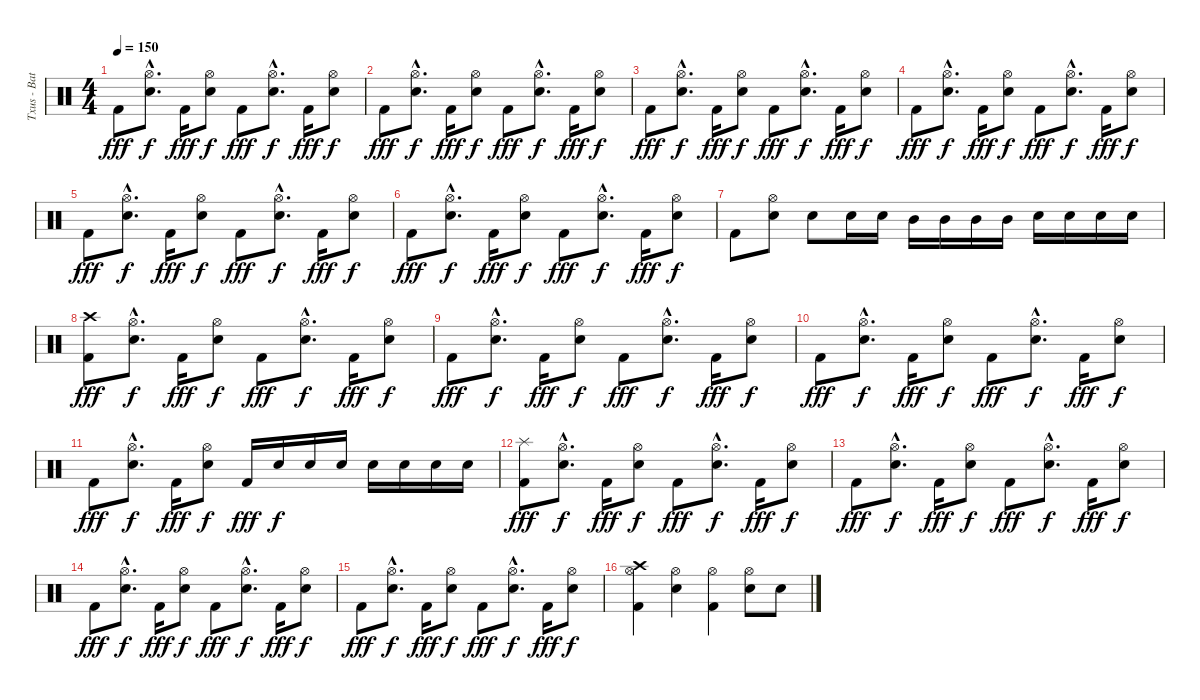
\track ("Txus - Batería" "Txus - Bat") {instrument percussion}
\staff {score}
\articulation defaults
\ts (4 4)
\tempo 150
\clef neutral
\ks c "Kick (hit) 2".8{dy fff}
("Hi-Hat (open)"{hac} "Electric Snare (hit)"{hac}).8{d dy f} "Kick (hit) 2".16{dy fff} ("Hi-Hat (open)" "Electric Snare (hit)").8{dy f} "Kick (hit) 2".8{dy fff} ("Hi-Hat (open)"{hac} "Electric Snare (hit)"{hac}).8{d dy f} "Kick (hit) 2".16{dy fff} ("Hi-Hat (open)" "Electric Snare (hit)").8{dy f} |
"Kick (hit) 2".8{dy fff} ("Hi-Hat (open)"{hac} "Electric Snare (hit)"{hac}).8{d dy f} "Kick (hit) 2".16{dy fff} ("Hi-Hat (open)" "Electric Snare (hit)").8{dy f} "Kick (hit) 2".8{dy fff} ("Hi-Hat (open)"{hac} "Electric Snare (hit)"{hac}).8{d dy f} "Kick (hit) 2".16{dy fff} ("Hi-Hat (open)" "Electric Snare (hit)").8{dy f} |
"Kick (hit) 2".8{dy fff} ("Hi-Hat (open)"{hac} "Electric Snare (hit)"{hac}).8{d dy f} "Kick (hit) 2".16{dy fff} ("Hi-Hat (open)" "Electric Snare (hit)").8{dy f} "Kick (hit) 2".8{dy fff} ("Hi-Hat (open)"{hac} "Electric Snare (hit)"{hac}).8{d dy f} "Kick (hit) 2".16{dy fff} ("Hi-Hat (open)" "Electric Snare (hit)").8{dy f} |
"Kick (hit) 2".8{dy fff} ("Hi-Hat (open)"{hac} "Electric Snare (hit)"{hac}).8{d dy f} "Kick (hit) 2".16{dy fff} ("Hi-Hat (open)" "Electric Snare (hit)").8{dy f} "Kick (hit) 2".8{dy fff} ("Hi-Hat (open)"{hac} "Electric Snare (hit)"{hac}).8{d dy f} "Kick (hit) 2".16{dy fff} ("Hi-Hat (open)" "Electric Snare (hit)").8{dy f} |
"Kick (hit) 2".8{dy fff} ("Hi-Hat (open)"{hac} "Electric Snare (hit)"{hac}).8{d dy f} "Kick (hit) 2".16{dy fff} ("Hi-Hat (open)" "Electric Snare (hit)").8{dy f} "Kick (hit) 2".8{dy fff} ("Hi-Hat (open)"{hac} "Electric Snare (hit)"{hac}).8{d dy f} "Kick (hit) 2".16{dy fff} ("Hi-Hat (open)" "Electric Snare (hit)").8{dy f} |
"Kick (hit) 2".8{dy fff} ("Hi-Hat (open)"{hac} "Electric Snare (hit)"{hac}).8{d dy f} "Kick (hit) 2".16{dy fff} ("Hi-Hat (open)" "Electric Snare (hit)").8{dy f} "Kick (hit) 2".8{dy fff} ("Hi-Hat (open)"{hac} "Electric Snare (hit)"{hac}).8{d dy f} "Kick (hit) 2".16{dy fff} ("Hi-Hat (open)" "Electric Snare (hit)").8{dy f} |
"Kick (hit) 2".8 ("Hi-Hat (open)" "Electric Snare (hit)").8 "Electric Snare (hit)".8 "Electric Snare (hit)".16 "Electric Snare (hit)".16 "Mid Tom (hit)".16 "Mid Tom (hit)".16 "Mid Tom (hit)".16 "Mid Tom (hit)".16 "Electric Snare (hit)".16 "Electric Snare (hit)".16 "Electric Snare (hit)".16 "Electric Snare (hit)".16 |
("Crash high (hit)" "Kick (hit) 2").8{dy fff} ("Hi-Hat (open)"{hac} "Electric Snare (hit)"{hac}).8{d dy f} "Kick (hit) 2".16{dy fff} ("Hi-Hat (open)" "Electric Snare (hit)").8{dy f} "Kick (hit) 2".8{dy fff} ("Hi-Hat (open)"{hac} "Electric Snare (hit)"{hac}).8{d dy f} "Kick (hit) 2".16{dy fff} ("Hi-Hat (open)" "Electric Snare (hit)").8{dy f} |
"Kick (hit) 2".8{dy fff} ("Hi-Hat (open)"{hac} "Electric Snare (hit)"{hac}).8{d dy f} "Kick (hit) 2".16{dy fff} ("Hi-Hat (open)" "Electric Snare (hit)").8{dy f} "Kick (hit) 2".8{dy fff} ("Hi-Hat (open)"{hac} "Electric Snare (hit)"{hac}).8{d dy f} "Kick (hit) 2".16{dy fff} ("Hi-Hat (open)" "Electric Snare (hit)").8{dy f} |
"Kick (hit) 2".8{dy fff} ("Hi-Hat (open)"{hac} "Electric Snare (hit)"{hac}).8{d dy f} "Kick (hit) 2".16{dy fff} ("Hi-Hat (open)" "Electric Snare (hit)").8{dy f} "Kick (hit) 2".8{dy fff} ("Hi-Hat (open)"{hac} "Electric Snare (hit)"{hac}).8{d dy f} "Kick (hit) 2".16{dy fff} ("Hi-Hat (open)" "Electric Snare (hit)").8{dy f} |
"Kick (hit) 2".8{dy fff} ("Hi-Hat (open)"{hac} "Electric Snare (hit)"{hac}).8{d dy f} "Kick (hit) 2".16{dy fff} ("Hi-Hat (open)" "Electric Snare (hit)").8{dy f} "Kick (hit) 2".16{dy fff} "Electric Snare (hit)".16{dy f} "Electric Snare (hit)".16 "Electric Snare (hit)".16 "Electric Snare (hit)".16 "Electric Snare (hit)".16 "Electric Snare (hit)".16 "Electric Snare (hit)".16 |
("Splash (hit)" "Kick (hit) 2").8{dy fff} ("Hi-Hat (open)"{hac} "Electric Snare (hit)"{hac}).8{d dy f} "Kick (hit) 2".16{dy fff} ("Hi-Hat (open)" "Electric Snare (hit)").8{dy f} "Kick (hit) 2".8{dy fff} ("Hi-Hat (open)"{hac} "Electric Snare (hit)"{hac}).8{d dy f} "Kick (hit) 2".16{dy fff} ("Hi-Hat (open)" "Electric Snare (hit)").8{dy f} |
"Kick (hit) 2".8{dy fff} ("Hi-Hat (open)"{hac} "Electric Snare (hit)"{hac}).8{d dy f} "Kick (hit) 2".16{dy fff} ("Hi-Hat (open)" "Electric Snare (hit)").8{dy f} "Kick (hit) 2".8{dy fff} ("Hi-Hat (open)"{hac} "Electric Snare (hit)"{hac}).8{d dy f} "Kick (hit) 2".16{dy fff} ("Hi-Hat (open)" "Electric Snare (hit)").8{dy f} |
"Kick (hit) 2".8{dy fff} ("Hi-Hat (open)"{hac} "Electric Snare (hit)"{hac}).8{d dy f} "Kick (hit) 2".16{dy fff} ("Hi-Hat (open)" "Electric Snare (hit)").8{dy f} "Kick (hit) 2".8{dy fff} ("Hi-Hat (open)"{hac} "Electric Snare (hit)"{hac}).8{d dy f} "Kick (hit) 2".16{dy fff} ("Hi-Hat (open)" "Electric Snare (hit)").8{dy f} |
"Kick (hit) 2".8{dy fff} ("Hi-Hat (open)"{hac} "Electric Snare (hit)"{hac}).8{d dy f} "Kick (hit) 2".16{dy fff} ("Hi-Hat (open)" "Electric Snare (hit)").8{dy f} "Kick (hit) 2".8{dy fff} ("Hi-Hat (open)"{hac} "Electric Snare (hit)"{hac}).8{d dy f} "Kick (hit) 2".16{dy fff} ("Hi-Hat (open)" "Electric Snare (hit)").8{dy f} |
("Crash high (hit)" "Hi-Hat (open)" "Kick (hit) 2").4{volume 9} ("Hi-Hat (open)" "Electric Snare (hit)").4 ("Hi-Hat (open)" "Kick (hit) 2").4 ("Hi-Hat (open)" "Electric Snare (hit)").8 "Electric Snare (hit)".8
